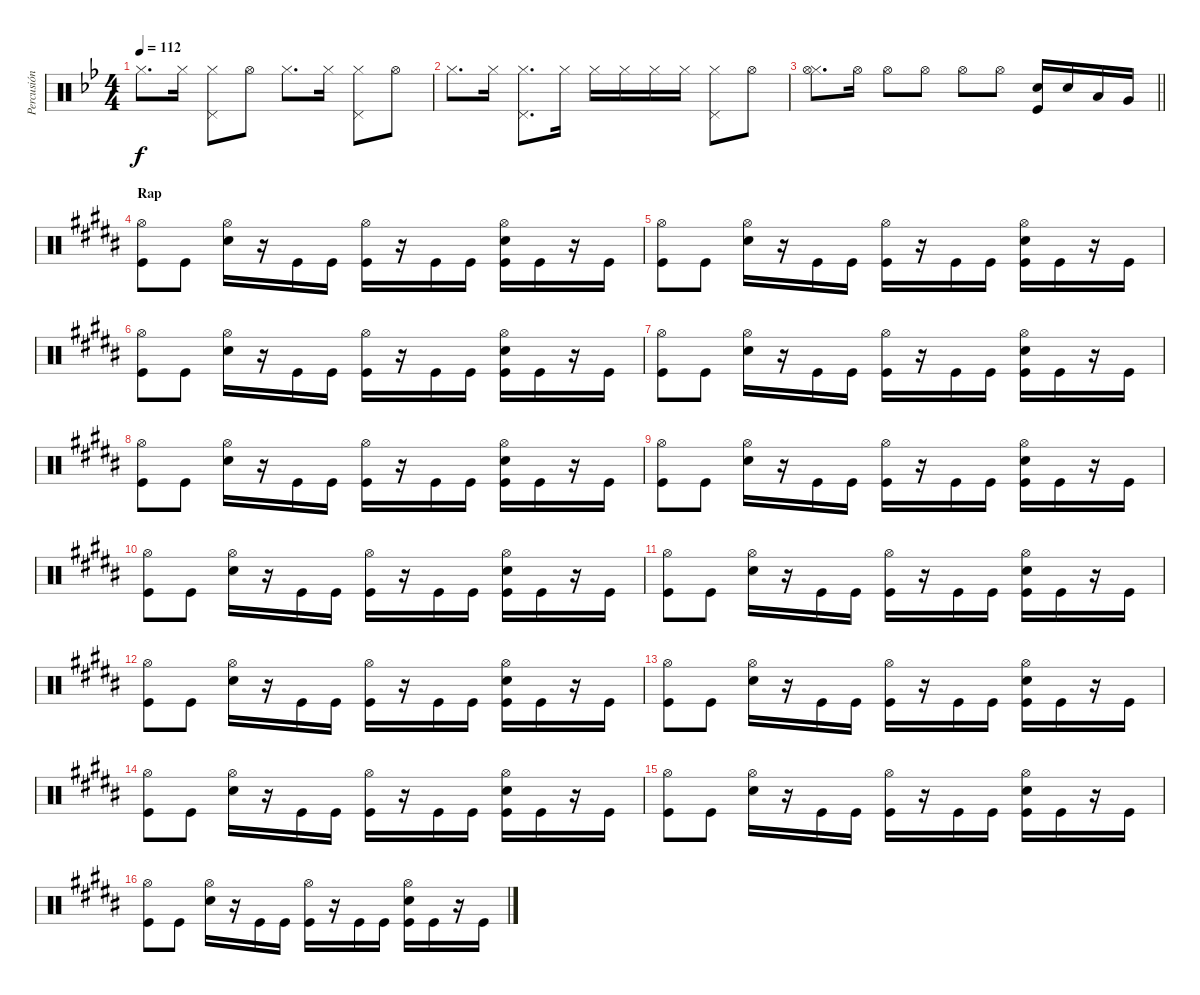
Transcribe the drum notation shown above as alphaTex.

\track ("Percusión" "Percusión") {instrument percussion}
\staff {score}
\articulation defaults
\ts (4 4)
\tempo 112
\clef neutral
\ks bb "Hi-Hat (closed)".8{d dy f} "Hi-Hat (closed)".16
("Hi-Hat (closed)" "Pedal Hi-Hat (hit)").8 "Hi-Hat (open)".8 "Hi-Hat (closed)".8{d} "Hi-Hat (closed)".16 ("Hi-Hat (closed)" "Pedal Hi-Hat (hit)").8 "Hi-Hat (open)".8 |
"Hi-Hat (closed)".8{d} "Hi-Hat (closed)".16 ("Hi-Hat (closed)" "Pedal Hi-Hat (hit)").8{d} "Hi-Hat (closed)".16 "Hi-Hat (closed)".16 "Hi-Hat (closed)".16 "Hi-Hat (closed)".16 "Hi-Hat (closed)".16 ("Hi-Hat (closed)" "Pedal Hi-Hat (hit)").8 "Hi-Hat (open)".8 |
\barLineRight lightlight
("Hi-Hat (closed)" "Hi-Hat (open)").8{d} "Hi-Hat (open)".16 "Hi-Hat (open)".8 "Hi-Hat (open)".8 "Hi-Hat (open)".8 "Hi-Hat (open)".8 ("Snare (hit) 2" "Kick (hit)").16 "Snare (hit) 2".16 "Low Tom (hit)".16 "Very Low Tom (hit)".16 |
\section ("" "Rap")
\ks b
("Hi-Hat (open)" "Kick (hit)").8 "Kick (hit)".8 ("Hi-Hat (open)" "Snare (hit) 2").16 r.16 "Kick (hit)".16 "Kick (hit)".16 ("Hi-Hat (open)" "Kick (hit)").16 r.16 "Kick (hit)".16 "Kick (hit)".16 ("Hi-Hat (open)" "Snare (hit) 2" "Kick (hit)").16 "Kick (hit)".16 r.16 "Kick (hit)".16 |
("Hi-Hat (open)" "Kick (hit)").8 "Kick (hit)".8 ("Hi-Hat (open)" "Snare (hit) 2").16 r.16 "Kick (hit)".16 "Kick (hit)".16 ("Hi-Hat (open)" "Kick (hit)").16 r.16 "Kick (hit)".16 "Kick (hit)".16 ("Hi-Hat (open)" "Snare (hit) 2" "Kick (hit)").16 "Kick (hit)".16 r.16 "Kick (hit)".16 |
("Hi-Hat (open)" "Kick (hit)").8 "Kick (hit)".8 ("Hi-Hat (open)" "Snare (hit) 2").16 r.16 "Kick (hit)".16 "Kick (hit)".16 ("Hi-Hat (open)" "Kick (hit)").16 r.16 "Kick (hit)".16 "Kick (hit)".16 ("Hi-Hat (open)" "Snare (hit) 2" "Kick (hit)").16 "Kick (hit)".16 r.16 "Kick (hit)".16 |
("Hi-Hat (open)" "Kick (hit)").8 "Kick (hit)".8 ("Hi-Hat (open)" "Snare (hit) 2").16 r.16 "Kick (hit)".16 "Kick (hit)".16 ("Hi-Hat (open)" "Kick (hit)").16 r.16 "Kick (hit)".16 "Kick (hit)".16 ("Hi-Hat (open)" "Snare (hit) 2" "Kick (hit)").16 "Kick (hit)".16 r.16 "Kick (hit)".16 |
("Hi-Hat (open)" "Kick (hit)").8 "Kick (hit)".8 ("Hi-Hat (open)" "Snare (hit) 2").16 r.16 "Kick (hit)".16 "Kick (hit)".16 ("Hi-Hat (open)" "Kick (hit)").16 r.16 "Kick (hit)".16 "Kick (hit)".16 ("Hi-Hat (open)" "Snare (hit) 2" "Kick (hit)").16 "Kick (hit)".16 r.16 "Kick (hit)".16 |
("Hi-Hat (open)" "Kick (hit)").8 "Kick (hit)".8 ("Hi-Hat (open)" "Snare (hit) 2").16 r.16 "Kick (hit)".16 "Kick (hit)".16 ("Hi-Hat (open)" "Kick (hit)").16 r.16 "Kick (hit)".16 "Kick (hit)".16 ("Hi-Hat (open)" "Snare (hit) 2" "Kick (hit)").16 "Kick (hit)".16 r.16 "Kick (hit)".16 |
("Hi-Hat (open)" "Kick (hit)").8 "Kick (hit)".8 ("Hi-Hat (open)" "Snare (hit) 2").16 r.16 "Kick (hit)".16 "Kick (hit)".16 ("Hi-Hat (open)" "Kick (hit)").16 r.16 "Kick (hit)".16 "Kick (hit)".16 ("Hi-Hat (open)" "Snare (hit) 2" "Kick (hit)").16 "Kick (hit)".16 r.16 "Kick (hit)".16 |
("Hi-Hat (open)" "Kick (hit)").8 "Kick (hit)".8 ("Hi-Hat (open)" "Snare (hit) 2").16 r.16 "Kick (hit)".16 "Kick (hit)".16 ("Hi-Hat (open)" "Kick (hit)").16 r.16 "Kick (hit)".16 "Kick (hit)".16 ("Hi-Hat (open)" "Snare (hit) 2" "Kick (hit)").16 "Kick (hit)".16 r.16 "Kick (hit)".16 |
("Hi-Hat (open)" "Kick (hit)").8 "Kick (hit)".8 ("Hi-Hat (open)" "Snare (hit) 2").16 r.16 "Kick (hit)".16 "Kick (hit)".16 ("Hi-Hat (open)" "Kick (hit)").16 r.16 "Kick (hit)".16 "Kick (hit)".16 ("Hi-Hat (open)" "Snare (hit) 2" "Kick (hit)").16 "Kick (hit)".16 r.16 "Kick (hit)".16 |
("Hi-Hat (open)" "Kick (hit)").8 "Kick (hit)".8 ("Hi-Hat (open)" "Snare (hit) 2").16 r.16 "Kick (hit)".16 "Kick (hit)".16 ("Hi-Hat (open)" "Kick (hit)").16 r.16 "Kick (hit)".16 "Kick (hit)".16 ("Hi-Hat (open)" "Snare (hit) 2" "Kick (hit)").16 "Kick (hit)".16 r.16 "Kick (hit)".16 |
("Hi-Hat (open)" "Kick (hit)").8 "Kick (hit)".8 ("Hi-Hat (open)" "Snare (hit) 2").16 r.16 "Kick (hit)".16 "Kick (hit)".16 ("Hi-Hat (open)" "Kick (hit)").16 r.16 "Kick (hit)".16 "Kick (hit)".16 ("Hi-Hat (open)" "Snare (hit) 2" "Kick (hit)").16 "Kick (hit)".16 r.16 "Kick (hit)".16 |
("Hi-Hat (open)" "Kick (hit)").8 "Kick (hit)".8 ("Hi-Hat (open)" "Snare (hit) 2").16 r.16 "Kick (hit)".16 "Kick (hit)".16 ("Hi-Hat (open)" "Kick (hit)").16 r.16 "Kick (hit)".16 "Kick (hit)".16 ("Hi-Hat (open)" "Snare (hit) 2" "Kick (hit)").16 "Kick (hit)".16 r.16 "Kick (hit)".16 |
("Hi-Hat (open)" "Kick (hit)").8 "Kick (hit)".8 ("Hi-Hat (open)" "Snare (hit) 2").16 r.16 "Kick (hit)".16 "Kick (hit)".16 ("Hi-Hat (open)" "Kick (hit)").16 r.16 "Kick (hit)".16 "Kick (hit)".16 ("Hi-Hat (open)" "Snare (hit) 2" "Kick (hit)").16 "Kick (hit)".16 r.16 "Kick (hit)".16
